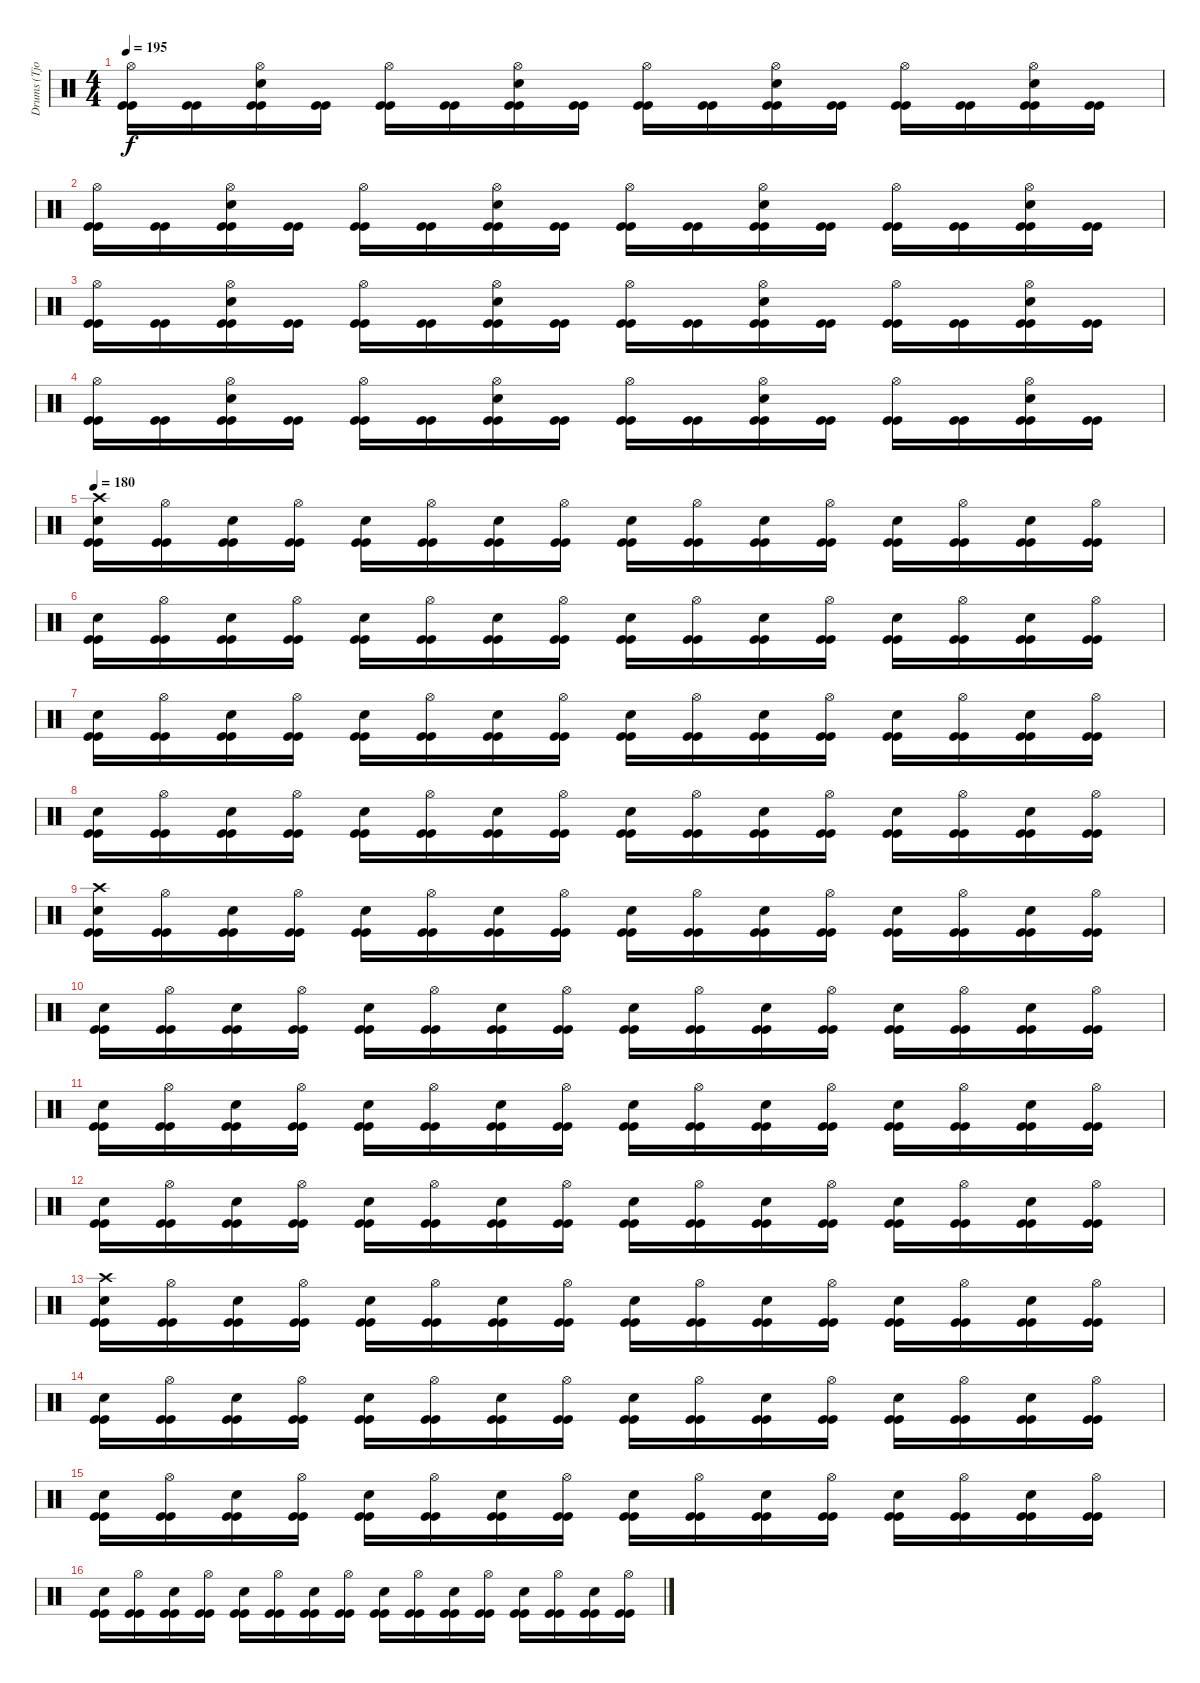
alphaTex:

\track ("Drums (Tjodalv)" "Drums (Tjo") {instrument percussion}
\staff {score}
\articulation defaults
\ts (4 4)
\tempo 195
\clef neutral
\ks c
("Hi-Hat (open)" "Kick (hit)" "Kick (hit)").16{dy f} ("Kick (hit)" "Kick (hit)").16 ("Snare (hit) 2" "Hi-Hat (open)" "Kick (hit)" "Kick (hit)").16 ("Kick (hit)" "Kick (hit)").16 ("Hi-Hat (open)" "Kick (hit)" "Kick (hit)").16 ("Kick (hit)" "Kick (hit)").16 ("Snare (hit) 2" "Hi-Hat (open)" "Kick (hit)" "Kick (hit)").16 ("Kick (hit)" "Kick (hit)").16 ("Hi-Hat (open)" "Kick (hit)" "Kick (hit)").16 ("Kick (hit)" "Kick (hit)").16 ("Snare (hit) 2" "Hi-Hat (open)" "Kick (hit)" "Kick (hit)").16 ("Kick (hit)" "Kick (hit)").16 ("Hi-Hat (open)" "Kick (hit)" "Kick (hit)").16 ("Kick (hit)" "Kick (hit)").16 ("Snare (hit) 2" "Hi-Hat (open)" "Kick (hit)" "Kick (hit)").16 ("Kick (hit)" "Kick (hit)").16 |
("Hi-Hat (open)" "Kick (hit)" "Kick (hit)").16 ("Kick (hit)" "Kick (hit)").16 ("Snare (hit) 2" "Hi-Hat (open)" "Kick (hit)" "Kick (hit)").16 ("Kick (hit)" "Kick (hit)").16 ("Hi-Hat (open)" "Kick (hit)" "Kick (hit)").16 ("Kick (hit)" "Kick (hit)").16 ("Snare (hit) 2" "Hi-Hat (open)" "Kick (hit)" "Kick (hit)").16 ("Kick (hit)" "Kick (hit)").16 ("Hi-Hat (open)" "Kick (hit)" "Kick (hit)").16 ("Kick (hit)" "Kick (hit)").16 ("Snare (hit) 2" "Hi-Hat (open)" "Kick (hit)" "Kick (hit)").16 ("Kick (hit)" "Kick (hit)").16 ("Hi-Hat (open)" "Kick (hit)" "Kick (hit)").16 ("Kick (hit)" "Kick (hit)").16 ("Snare (hit) 2" "Hi-Hat (open)" "Kick (hit)" "Kick (hit)").16 ("Kick (hit)" "Kick (hit)").16 |
("Hi-Hat (open)" "Kick (hit)" "Kick (hit)").16 ("Kick (hit)" "Kick (hit)").16 ("Snare (hit) 2" "Hi-Hat (open)" "Kick (hit)" "Kick (hit)").16 ("Kick (hit)" "Kick (hit)").16 ("Hi-Hat (open)" "Kick (hit)" "Kick (hit)").16 ("Kick (hit)" "Kick (hit)").16 ("Snare (hit) 2" "Hi-Hat (open)" "Kick (hit)" "Kick (hit)").16 ("Kick (hit)" "Kick (hit)").16 ("Hi-Hat (open)" "Kick (hit)" "Kick (hit)").16 ("Kick (hit)" "Kick (hit)").16 ("Snare (hit) 2" "Hi-Hat (open)" "Kick (hit)" "Kick (hit)").16 ("Kick (hit)" "Kick (hit)").16 ("Hi-Hat (open)" "Kick (hit)" "Kick (hit)").16 ("Kick (hit)" "Kick (hit)").16 ("Snare (hit) 2" "Hi-Hat (open)" "Kick (hit)" "Kick (hit)").16 ("Kick (hit)" "Kick (hit)").16 |
("Hi-Hat (open)" "Kick (hit)" "Kick (hit)").16 ("Kick (hit)" "Kick (hit)").16 ("Snare (hit) 2" "Hi-Hat (open)" "Kick (hit)" "Kick (hit)").16 ("Kick (hit)" "Kick (hit)").16 ("Hi-Hat (open)" "Kick (hit)" "Kick (hit)").16 ("Kick (hit)" "Kick (hit)").16 ("Snare (hit) 2" "Hi-Hat (open)" "Kick (hit)" "Kick (hit)").16 ("Kick (hit)" "Kick (hit)").16 ("Hi-Hat (open)" "Kick (hit)" "Kick (hit)").16 ("Kick (hit)" "Kick (hit)").16 ("Snare (hit) 2" "Hi-Hat (open)" "Kick (hit)" "Kick (hit)").16 ("Kick (hit)" "Kick (hit)").16 ("Hi-Hat (open)" "Kick (hit)" "Kick (hit)").16 ("Kick (hit)" "Kick (hit)").16 ("Snare (hit) 2" "Hi-Hat (open)" "Kick (hit)" "Kick (hit)").16 ("Kick (hit)" "Kick (hit)").16 |
\tempo 180
("Snare (hit) 2" "Crash high (hit)" "Kick (hit)" "Kick (hit)").16 ("Hi-Hat (open)" "Kick (hit)" "Kick (hit)").16 ("Snare (hit) 2" "Kick (hit)" "Kick (hit)").16 ("Hi-Hat (open)" "Kick (hit)" "Kick (hit)").16 ("Snare (hit) 2" "Kick (hit)" "Kick (hit)").16 ("Hi-Hat (open)" "Kick (hit)" "Kick (hit)").16 ("Snare (hit) 2" "Kick (hit)" "Kick (hit)").16 ("Hi-Hat (open)" "Kick (hit)" "Kick (hit)").16 ("Snare (hit) 2" "Kick (hit)" "Kick (hit)").16 ("Hi-Hat (open)" "Kick (hit)" "Kick (hit)").16 ("Snare (hit) 2" "Kick (hit)" "Kick (hit)").16 ("Hi-Hat (open)" "Kick (hit)" "Kick (hit)").16 ("Snare (hit) 2" "Kick (hit)" "Kick (hit)").16 ("Hi-Hat (open)" "Kick (hit)" "Kick (hit)").16 ("Snare (hit) 2" "Kick (hit)" "Kick (hit)").16 ("Hi-Hat (open)" "Kick (hit)" "Kick (hit)").16 |
("Snare (hit) 2" "Kick (hit)" "Kick (hit)").16 ("Hi-Hat (open)" "Kick (hit)" "Kick (hit)").16 ("Snare (hit) 2" "Kick (hit)" "Kick (hit)").16 ("Hi-Hat (open)" "Kick (hit)" "Kick (hit)").16 ("Snare (hit) 2" "Kick (hit)" "Kick (hit)").16 ("Hi-Hat (open)" "Kick (hit)" "Kick (hit)").16 ("Snare (hit) 2" "Kick (hit)" "Kick (hit)").16 ("Hi-Hat (open)" "Kick (hit)" "Kick (hit)").16 ("Snare (hit) 2" "Kick (hit)" "Kick (hit)").16 ("Hi-Hat (open)" "Kick (hit)" "Kick (hit)").16 ("Snare (hit) 2" "Kick (hit)" "Kick (hit)").16 ("Hi-Hat (open)" "Kick (hit)" "Kick (hit)").16 ("Snare (hit) 2" "Kick (hit)" "Kick (hit)").16 ("Hi-Hat (open)" "Kick (hit)" "Kick (hit)").16 ("Snare (hit) 2" "Kick (hit)" "Kick (hit)").16 ("Hi-Hat (open)" "Kick (hit)" "Kick (hit)").16 |
("Snare (hit) 2" "Kick (hit)" "Kick (hit)").16 ("Hi-Hat (open)" "Kick (hit)" "Kick (hit)").16 ("Snare (hit) 2" "Kick (hit)" "Kick (hit)").16 ("Hi-Hat (open)" "Kick (hit)" "Kick (hit)").16 ("Snare (hit) 2" "Kick (hit)" "Kick (hit)").16 ("Hi-Hat (open)" "Kick (hit)" "Kick (hit)").16 ("Snare (hit) 2" "Kick (hit)" "Kick (hit)").16 ("Hi-Hat (open)" "Kick (hit)" "Kick (hit)").16 ("Snare (hit) 2" "Kick (hit)" "Kick (hit)").16 ("Hi-Hat (open)" "Kick (hit)" "Kick (hit)").16 ("Snare (hit) 2" "Kick (hit)" "Kick (hit)").16 ("Hi-Hat (open)" "Kick (hit)" "Kick (hit)").16 ("Snare (hit) 2" "Kick (hit)" "Kick (hit)").16 ("Hi-Hat (open)" "Kick (hit)" "Kick (hit)").16 ("Snare (hit) 2" "Kick (hit)" "Kick (hit)").16 ("Hi-Hat (open)" "Kick (hit)" "Kick (hit)").16 |
("Snare (hit) 2" "Kick (hit)" "Kick (hit)").16 ("Hi-Hat (open)" "Kick (hit)" "Kick (hit)").16 ("Snare (hit) 2" "Kick (hit)" "Kick (hit)").16 ("Hi-Hat (open)" "Kick (hit)" "Kick (hit)").16 ("Snare (hit) 2" "Kick (hit)" "Kick (hit)").16 ("Hi-Hat (open)" "Kick (hit)" "Kick (hit)").16 ("Snare (hit) 2" "Kick (hit)" "Kick (hit)").16 ("Hi-Hat (open)" "Kick (hit)" "Kick (hit)").16 ("Snare (hit) 2" "Kick (hit)" "Kick (hit)").16 ("Hi-Hat (open)" "Kick (hit)" "Kick (hit)").16 ("Snare (hit) 2" "Kick (hit)" "Kick (hit)").16 ("Hi-Hat (open)" "Kick (hit)" "Kick (hit)").16 ("Snare (hit) 2" "Kick (hit)" "Kick (hit)").16 ("Hi-Hat (open)" "Kick (hit)" "Kick (hit)").16 ("Snare (hit) 2" "Kick (hit)" "Kick (hit)").16 ("Hi-Hat (open)" "Kick (hit)" "Kick (hit)").16 |
("Snare (hit) 2" "Crash high (hit)" "Kick (hit)" "Kick (hit)").16 ("Hi-Hat (open)" "Kick (hit)" "Kick (hit)").16 ("Snare (hit) 2" "Kick (hit)" "Kick (hit)").16 ("Hi-Hat (open)" "Kick (hit)" "Kick (hit)").16 ("Snare (hit) 2" "Kick (hit)" "Kick (hit)").16 ("Hi-Hat (open)" "Kick (hit)" "Kick (hit)").16 ("Snare (hit) 2" "Kick (hit)" "Kick (hit)").16 ("Hi-Hat (open)" "Kick (hit)" "Kick (hit)").16 ("Snare (hit) 2" "Kick (hit)" "Kick (hit)").16 ("Hi-Hat (open)" "Kick (hit)" "Kick (hit)").16 ("Snare (hit) 2" "Kick (hit)" "Kick (hit)").16 ("Hi-Hat (open)" "Kick (hit)" "Kick (hit)").16 ("Snare (hit) 2" "Kick (hit)" "Kick (hit)").16 ("Hi-Hat (open)" "Kick (hit)" "Kick (hit)").16 ("Snare (hit) 2" "Kick (hit)" "Kick (hit)").16 ("Hi-Hat (open)" "Kick (hit)" "Kick (hit)").16 |
("Snare (hit) 2" "Kick (hit)" "Kick (hit)").16 ("Hi-Hat (open)" "Kick (hit)" "Kick (hit)").16 ("Snare (hit) 2" "Kick (hit)" "Kick (hit)").16 ("Hi-Hat (open)" "Kick (hit)" "Kick (hit)").16 ("Snare (hit) 2" "Kick (hit)" "Kick (hit)").16 ("Hi-Hat (open)" "Kick (hit)" "Kick (hit)").16 ("Snare (hit) 2" "Kick (hit)" "Kick (hit)").16 ("Hi-Hat (open)" "Kick (hit)" "Kick (hit)").16 ("Snare (hit) 2" "Kick (hit)" "Kick (hit)").16 ("Hi-Hat (open)" "Kick (hit)" "Kick (hit)").16 ("Snare (hit) 2" "Kick (hit)" "Kick (hit)").16 ("Hi-Hat (open)" "Kick (hit)" "Kick (hit)").16 ("Snare (hit) 2" "Kick (hit)" "Kick (hit)").16 ("Hi-Hat (open)" "Kick (hit)" "Kick (hit)").16 ("Snare (hit) 2" "Kick (hit)" "Kick (hit)").16 ("Hi-Hat (open)" "Kick (hit)" "Kick (hit)").16 |
("Snare (hit) 2" "Kick (hit)" "Kick (hit)").16 ("Hi-Hat (open)" "Kick (hit)" "Kick (hit)").16 ("Snare (hit) 2" "Kick (hit)" "Kick (hit)").16 ("Hi-Hat (open)" "Kick (hit)" "Kick (hit)").16 ("Snare (hit) 2" "Kick (hit)" "Kick (hit)").16 ("Hi-Hat (open)" "Kick (hit)" "Kick (hit)").16 ("Snare (hit) 2" "Kick (hit)" "Kick (hit)").16 ("Hi-Hat (open)" "Kick (hit)" "Kick (hit)").16 ("Snare (hit) 2" "Kick (hit)" "Kick (hit)").16 ("Hi-Hat (open)" "Kick (hit)" "Kick (hit)").16 ("Snare (hit) 2" "Kick (hit)" "Kick (hit)").16 ("Hi-Hat (open)" "Kick (hit)" "Kick (hit)").16 ("Snare (hit) 2" "Kick (hit)" "Kick (hit)").16 ("Hi-Hat (open)" "Kick (hit)" "Kick (hit)").16 ("Snare (hit) 2" "Kick (hit)" "Kick (hit)").16 ("Hi-Hat (open)" "Kick (hit)" "Kick (hit)").16 |
("Snare (hit) 2" "Kick (hit)" "Kick (hit)").16 ("Hi-Hat (open)" "Kick (hit)" "Kick (hit)").16 ("Snare (hit) 2" "Kick (hit)" "Kick (hit)").16 ("Hi-Hat (open)" "Kick (hit)" "Kick (hit)").16 ("Snare (hit) 2" "Kick (hit)" "Kick (hit)").16 ("Hi-Hat (open)" "Kick (hit)" "Kick (hit)").16 ("Snare (hit) 2" "Kick (hit)" "Kick (hit)").16 ("Hi-Hat (open)" "Kick (hit)" "Kick (hit)").16 ("Snare (hit) 2" "Kick (hit)" "Kick (hit)").16 ("Hi-Hat (open)" "Kick (hit)" "Kick (hit)").16 ("Snare (hit) 2" "Kick (hit)" "Kick (hit)").16 ("Hi-Hat (open)" "Kick (hit)" "Kick (hit)").16 ("Snare (hit) 2" "Kick (hit)" "Kick (hit)").16 ("Hi-Hat (open)" "Kick (hit)" "Kick (hit)").16 ("Snare (hit) 2" "Kick (hit)" "Kick (hit)").16 ("Hi-Hat (open)" "Kick (hit)" "Kick (hit)").16 |
("Snare (hit) 2" "Crash high (hit)" "Kick (hit)" "Kick (hit)").16 ("Hi-Hat (open)" "Kick (hit)" "Kick (hit)").16 ("Snare (hit) 2" "Kick (hit)" "Kick (hit)").16 ("Hi-Hat (open)" "Kick (hit)" "Kick (hit)").16 ("Snare (hit) 2" "Kick (hit)" "Kick (hit)").16 ("Hi-Hat (open)" "Kick (hit)" "Kick (hit)").16 ("Snare (hit) 2" "Kick (hit)" "Kick (hit)").16 ("Hi-Hat (open)" "Kick (hit)" "Kick (hit)").16 ("Snare (hit) 2" "Kick (hit)" "Kick (hit)").16 ("Hi-Hat (open)" "Kick (hit)" "Kick (hit)").16 ("Snare (hit) 2" "Kick (hit)" "Kick (hit)").16 ("Hi-Hat (open)" "Kick (hit)" "Kick (hit)").16 ("Snare (hit) 2" "Kick (hit)" "Kick (hit)").16 ("Hi-Hat (open)" "Kick (hit)" "Kick (hit)").16 ("Snare (hit) 2" "Kick (hit)" "Kick (hit)").16 ("Hi-Hat (open)" "Kick (hit)" "Kick (hit)").16 |
("Snare (hit) 2" "Kick (hit)" "Kick (hit)").16 ("Hi-Hat (open)" "Kick (hit)" "Kick (hit)").16 ("Snare (hit) 2" "Kick (hit)" "Kick (hit)").16 ("Hi-Hat (open)" "Kick (hit)" "Kick (hit)").16 ("Snare (hit) 2" "Kick (hit)" "Kick (hit)").16 ("Hi-Hat (open)" "Kick (hit)" "Kick (hit)").16 ("Snare (hit) 2" "Kick (hit)" "Kick (hit)").16 ("Hi-Hat (open)" "Kick (hit)" "Kick (hit)").16 ("Snare (hit) 2" "Kick (hit)" "Kick (hit)").16 ("Hi-Hat (open)" "Kick (hit)" "Kick (hit)").16 ("Snare (hit) 2" "Kick (hit)" "Kick (hit)").16 ("Hi-Hat (open)" "Kick (hit)" "Kick (hit)").16 ("Snare (hit) 2" "Kick (hit)" "Kick (hit)").16 ("Hi-Hat (open)" "Kick (hit)" "Kick (hit)").16 ("Snare (hit) 2" "Kick (hit)" "Kick (hit)").16 ("Hi-Hat (open)" "Kick (hit)" "Kick (hit)").16 |
("Snare (hit) 2" "Kick (hit)" "Kick (hit)").16 ("Hi-Hat (open)" "Kick (hit)" "Kick (hit)").16 ("Snare (hit) 2" "Kick (hit)" "Kick (hit)").16 ("Hi-Hat (open)" "Kick (hit)" "Kick (hit)").16 ("Snare (hit) 2" "Kick (hit)" "Kick (hit)").16 ("Hi-Hat (open)" "Kick (hit)" "Kick (hit)").16 ("Snare (hit) 2" "Kick (hit)" "Kick (hit)").16 ("Hi-Hat (open)" "Kick (hit)" "Kick (hit)").16 ("Snare (hit) 2" "Kick (hit)" "Kick (hit)").16 ("Hi-Hat (open)" "Kick (hit)" "Kick (hit)").16 ("Snare (hit) 2" "Kick (hit)" "Kick (hit)").16 ("Hi-Hat (open)" "Kick (hit)" "Kick (hit)").16 ("Snare (hit) 2" "Kick (hit)" "Kick (hit)").16 ("Hi-Hat (open)" "Kick (hit)" "Kick (hit)").16 ("Snare (hit) 2" "Kick (hit)" "Kick (hit)").16 ("Hi-Hat (open)" "Kick (hit)" "Kick (hit)").16 |
("Snare (hit) 2" "Kick (hit)" "Kick (hit)").16 ("Hi-Hat (open)" "Kick (hit)" "Kick (hit)").16 ("Snare (hit) 2" "Kick (hit)" "Kick (hit)").16 ("Hi-Hat (open)" "Kick (hit)" "Kick (hit)").16 ("Snare (hit) 2" "Kick (hit)" "Kick (hit)").16 ("Hi-Hat (open)" "Kick (hit)" "Kick (hit)").16 ("Snare (hit) 2" "Kick (hit)" "Kick (hit)").16 ("Hi-Hat (open)" "Kick (hit)" "Kick (hit)").16 ("Snare (hit) 2" "Kick (hit)" "Kick (hit)").16 ("Hi-Hat (open)" "Kick (hit)" "Kick (hit)").16 ("Snare (hit) 2" "Kick (hit)" "Kick (hit)").16 ("Hi-Hat (open)" "Kick (hit)" "Kick (hit)").16 ("Snare (hit) 2" "Kick (hit)" "Kick (hit)").16 ("Hi-Hat (open)" "Kick (hit)" "Kick (hit)").16 ("Snare (hit) 2" "Kick (hit)" "Kick (hit)").16 ("Hi-Hat (open)" "Kick (hit)" "Kick (hit)").16
